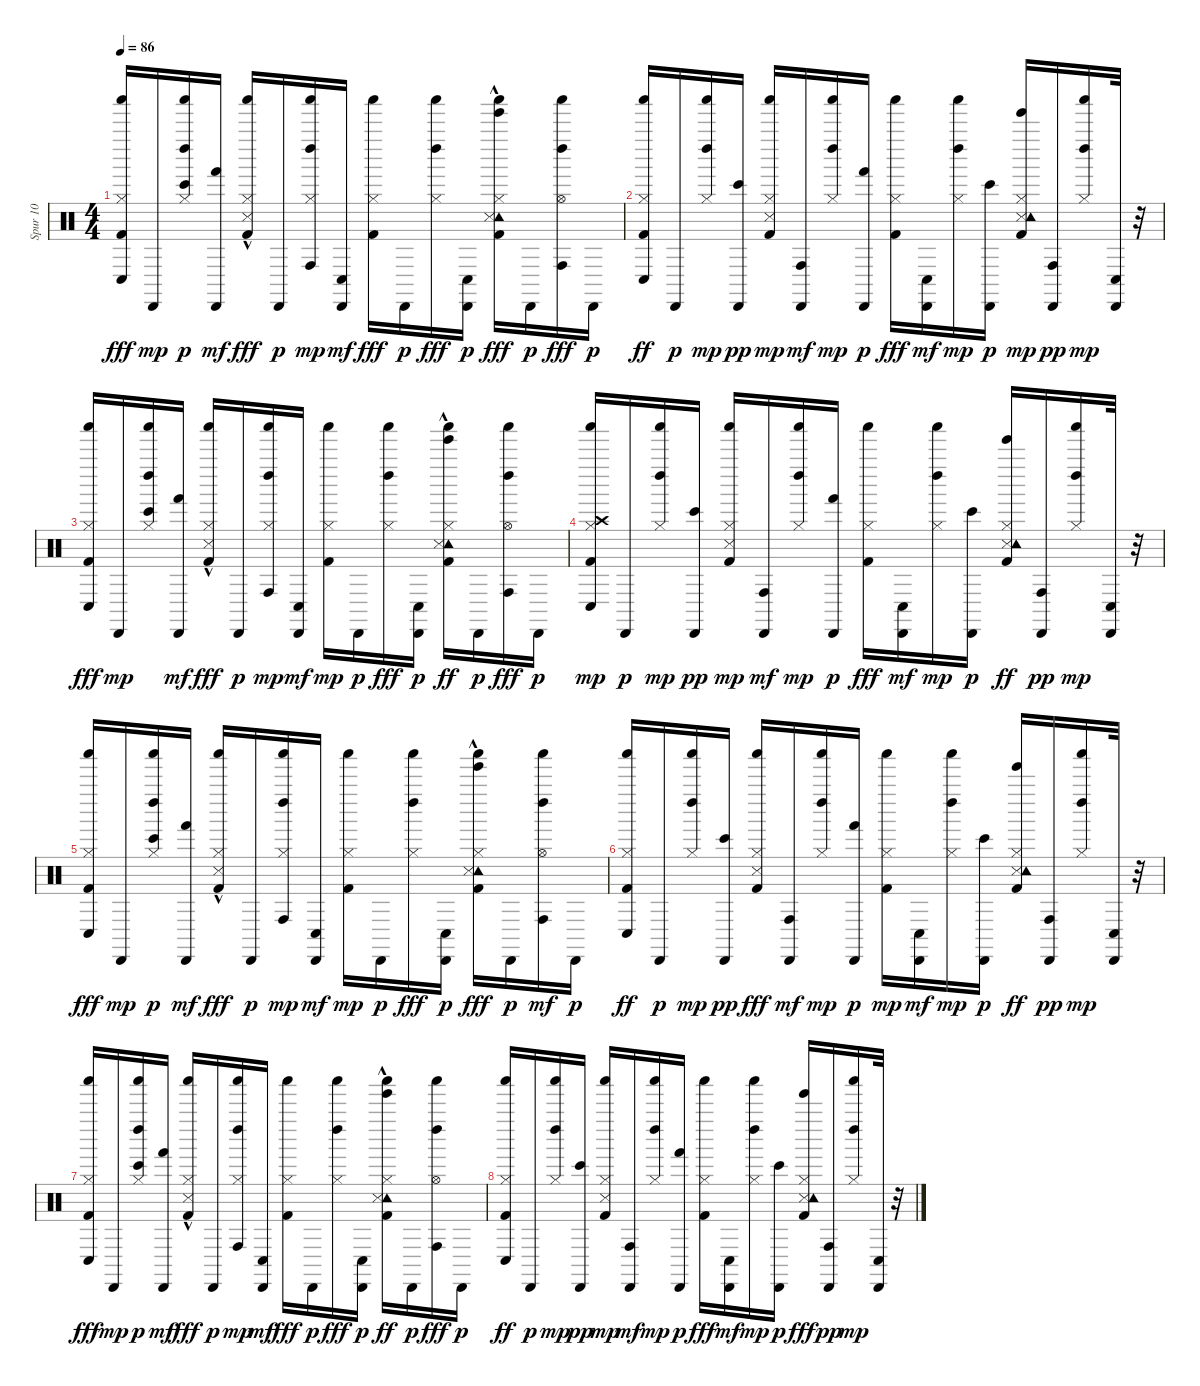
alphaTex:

\track ("Spur 10" "Spur 10") {instrument percussion}
\staff {score}
\articulation defaults
\ts (4 4)
\tempo 86
\clef neutral
\ks c
("Hi-Hat (closed)" "Kick (hit) 2" "Shaker (hit)" "Conga low (hit)").16{dy fff} "Cabasa (hit)".16{dy mp} ("Hi-Hat (closed)" "Shaker (hit)" "Bongo High (hit)" "Left Maraca (hit)").16{dy p} ("Cabasa (hit)" "Hand (hit)").16{dy mf} ("Hi-Hat (closed)" "Snare (side stick) 3"{hac} "Shaker (hit)" "Kick (hit) 2").16{dy fff} "Cabasa (hit)".16{dy p} ("Hi-Hat (closed)" "Conga high (hit)" "Shaker (hit)" "Left Maraca (hit)").16{dy mp} ("Cabasa (hit)" "Conga low (hit)").16{dy mf} ("Hi-Hat (closed)" "Shaker (hit)" "Kick (hit) 2").16{dy fff} "Cabasa (hit)".16{dy p} ("Hi-Hat (closed)" "Shaker (hit)" "Left Maraca (hit)").16{dy fff} ("Cabasa (hit)" "Conga low (hit)").16{dy p} ("Hi-Hat (closed)" "Tinkle Bell (hit)"{hac} "Tambourine (hit)"{hac} "Shaker (hit)" "Kick (hit) 2" "Snare (side stick) 3"{hac}).16{dy fff} "Cabasa (hit)".16{dy p} ("Hi-Hat (open)" "Shaker (hit)" "Conga high (hit)" "Left Maraca (hit)").16{dy fff} "Cabasa (hit)".16{dy p} |
("Hi-Hat (closed)" "Shaker (hit)" "Kick (hit) 2" "Conga low (hit)").16{dy ff} "Cabasa (hit)".16{dy p} ("Shaker (hit)" "Hi-Hat (closed)" "Left Maraca (hit)").16{dy mp} ("Bongo High (hit)" "Cabasa (hit)").16{dy pp} ("Shaker (hit)" "Kick (hit) 2" "Snare (side stick) 3" "Hi-Hat (closed)").16{dy mp} ("Cabasa (hit)" "Conga high (hit)").16{dy mf} ("Shaker (hit)" "Hi-Hat (closed)" "Left Maraca (hit)").16{dy mp} ("Hand (hit)" "Cabasa (hit)").16{dy p} ("Hi-Hat (closed)" "Shaker (hit)" "Kick (hit) 2").16{dy fff} ("Cabasa (hit)" "Conga low (hit)").16{dy mf} ("Shaker (hit)" "Hi-Hat (closed)" "Left Maraca (hit)").16{dy mp} ("Bongo High (hit)" "Cabasa (hit)").16{dy p} ("Snare (side stick) 3" "Kick (hit) 2" "Tambourine (hit)" "Tinkle Bell (hit)" "Hi-Hat (closed)").16{dy mp} ("Conga high (hit)" "Cabasa (hit)").16{dy pp} ("Shaker (hit)" "Hi-Hat (closed)" "Left Maraca (hit)").16{dy mp} ("Conga low (hit)" "Cabasa (hit)").32 r.32 |
("Hi-Hat (closed)" "Kick (hit) 2" "Shaker (hit)" "Conga low (hit)").16{dy fff} "Cabasa (hit)".16{dy mp} ("Shaker (hit)" "Bongo High (hit)" "Hi-Hat (closed)" "Left Maraca (hit)").16 ("Cabasa (hit)" "Hand (hit)").16{dy mf} ("Hi-Hat (closed)" "Snare (side stick) 3"{hac} "Shaker (hit)" "Kick (hit) 2").16{dy fff} "Cabasa (hit)".16{dy p} ("Conga high (hit)" "Shaker (hit)" "Hi-Hat (closed)" "Left Maraca (hit)").16{dy mp} ("Cabasa (hit)" "Conga low (hit)").16{dy mf} ("Shaker (hit)" "Kick (hit) 2" "Hi-Hat (closed)").16{dy mp} "Cabasa (hit)".16{dy p} ("Shaker (hit)" "Hi-Hat (closed)" "Left Maraca (hit)").16{dy fff} ("Cabasa (hit)" "Conga low (hit)").16{dy p} ("Hi-Hat (closed)" "Tambourine (hit)"{hac} "Shaker (hit)" "Kick (hit) 2" "Snare (side stick) 3"{hac} "Tinkle Bell (hit)").16{dy ff} "Cabasa (hit)".16{dy p} ("Hi-Hat (open)" "Shaker (hit)" "Conga high (hit)" "Left Maraca (hit)").16{dy fff} "Cabasa (hit)".16{dy p} |
("Shaker (hit)" "Kick (hit) 2" "Conga low (hit)" "Crash high (hit)" "Hi-Hat (closed)").16{dy mp} "Cabasa (hit)".16{dy p} ("Hi-Hat (closed)" "Shaker (hit)" "Left Maraca (hit)").16{dy mp} ("Bongo High (hit)" "Cabasa (hit)").16{dy pp} ("Shaker (hit)" "Kick (hit) 2" "Snare (side stick) 3" "Hi-Hat (closed)").16{dy mp} ("Cabasa (hit)" "Conga high (hit)").16{dy mf} ("Shaker (hit)" "Hi-Hat (closed)" "Left Maraca (hit)").16{dy mp} ("Hand (hit)" "Cabasa (hit)").16{dy p} ("Hi-Hat (closed)" "Shaker (hit)" "Kick (hit) 2").16{dy fff} ("Cabasa (hit)" "Conga low (hit)").16{dy mf} ("Shaker (hit)" "Hi-Hat (closed)" "Left Maraca (hit)").16{dy mp} ("Bongo High (hit)" "Cabasa (hit)").16{dy p} ("Hi-Hat (closed)" "Snare (side stick) 3" "Kick (hit) 2" "Tambourine (hit)" "Tinkle Bell (hit)").16{dy ff} ("Conga high (hit)" "Cabasa (hit)").16{dy pp} ("Shaker (hit)" "Hi-Hat (closed)" "Left Maraca (hit)").16{dy mp} ("Conga low (hit)" "Cabasa (hit)").32 r.32 |
("Hi-Hat (closed)" "Kick (hit) 2" "Shaker (hit)" "Conga low (hit)").16{dy fff} "Cabasa (hit)".16{dy mp} ("Hi-Hat (closed)" "Shaker (hit)" "Bongo High (hit)" "Left Maraca (hit)").16{dy p} ("Cabasa (hit)" "Hand (hit)").16{dy mf} ("Hi-Hat (closed)" "Snare (side stick) 3"{hac} "Shaker (hit)" "Kick (hit) 2").16{dy fff} "Cabasa (hit)".16{dy p} ("Conga high (hit)" "Shaker (hit)" "Hi-Hat (closed)" "Left Maraca (hit)").16{dy mp} ("Cabasa (hit)" "Conga low (hit)").16{dy mf} ("Shaker (hit)" "Kick (hit) 2" "Hi-Hat (closed)").16{dy mp} "Cabasa (hit)".16{dy p} ("Shaker (hit)" "Hi-Hat (closed)" "Left Maraca (hit)").16{dy fff} ("Cabasa (hit)" "Conga low (hit)").16{dy p} ("Tinkle Bell (hit)" "Tambourine (hit)"{hac} "Shaker (hit)" "Kick (hit) 2" "Snare (side stick) 3"{hac} "Hi-Hat (closed)").16{dy fff} "Cabasa (hit)".16{dy p} ("Shaker (hit)" "Conga high (hit)" "Hi-Hat (open)" "Left Maraca (hit)").16{dy mf} "Cabasa (hit)".16{dy p} |
("Hi-Hat (closed)" "Shaker (hit)" "Kick (hit) 2" "Conga low (hit)").16{dy ff} "Cabasa (hit)".16{dy p} ("Shaker (hit)" "Hi-Hat (closed)" "Left Maraca (hit)").16{dy mp} ("Bongo High (hit)" "Cabasa (hit)").16{dy pp} ("Hi-Hat (closed)" "Shaker (hit)" "Kick (hit) 2" "Snare (side stick) 3").16{dy fff} ("Cabasa (hit)" "Conga high (hit)").16{dy mf} ("Hi-Hat (closed)" "Shaker (hit)" "Left Maraca (hit)").16{dy mp} ("Hand (hit)" "Cabasa (hit)").16{dy p} ("Shaker (hit)" "Kick (hit) 2" "Hi-Hat (closed)").16{dy mp} ("Cabasa (hit)" "Conga low (hit)").16{dy mf} ("Shaker (hit)" "Hi-Hat (closed)" "Left Maraca (hit)").16{dy mp} ("Bongo High (hit)" "Cabasa (hit)").16{dy p} ("Hi-Hat (closed)" "Snare (side stick) 3" "Kick (hit) 2" "Tambourine (hit)" "Tinkle Bell (hit)").16{dy ff} ("Conga high (hit)" "Cabasa (hit)").16{dy pp} ("Shaker (hit)" "Hi-Hat (closed)" "Left Maraca (hit)").16{dy mp} ("Conga low (hit)" "Cabasa (hit)").32 r.32 |
("Hi-Hat (closed)" "Kick (hit) 2" "Shaker (hit)" "Conga low (hit)").16{dy fff} "Cabasa (hit)".16{dy mp} ("Hi-Hat (closed)" "Shaker (hit)" "Bongo High (hit)" "Left Maraca (hit)").16{dy p} ("Cabasa (hit)" "Hand (hit)").16{dy mf} ("Hi-Hat (closed)" "Snare (side stick) 3"{hac} "Shaker (hit)" "Kick (hit) 2").16{dy fff} "Cabasa (hit)".16{dy p} ("Conga high (hit)" "Shaker (hit)" "Hi-Hat (closed)" "Left Maraca (hit)").16{dy mp} ("Cabasa (hit)" "Conga low (hit)").16{dy mf} ("Hi-Hat (closed)" "Shaker (hit)" "Kick (hit) 2").16{dy fff} "Cabasa (hit)".16{dy p} ("Shaker (hit)" "Hi-Hat (closed)" "Left Maraca (hit)").16{dy fff} ("Cabasa (hit)" "Conga low (hit)").16{dy p} ("Hi-Hat (closed)" "Tambourine (hit)"{hac} "Shaker (hit)" "Kick (hit) 2" "Snare (side stick) 3"{hac} "Tinkle Bell (hit)"{hac}).16{dy ff} "Cabasa (hit)".16{dy p} ("Hi-Hat (open)" "Shaker (hit)" "Conga high (hit)" "Left Maraca (hit)").16{dy fff} "Cabasa (hit)".16{dy p} |
("Hi-Hat (closed)" "Shaker (hit)" "Kick (hit) 2" "Conga low (hit)").16{dy ff} "Cabasa (hit)".16{dy p} ("Shaker (hit)" "Hi-Hat (closed)" "Left Maraca (hit)").16{dy mp} ("Bongo High (hit)" "Cabasa (hit)").16{dy pp} ("Shaker (hit)" "Kick (hit) 2" "Snare (side stick) 3" "Hi-Hat (closed)").16{dy mp} ("Cabasa (hit)" "Conga high (hit)").16{dy mf} ("Shaker (hit)" "Hi-Hat (closed)" "Left Maraca (hit)").16{dy mp} ("Hand (hit)" "Cabasa (hit)").16{dy p} ("Hi-Hat (closed)" "Shaker (hit)" "Kick (hit) 2").16{dy fff} ("Cabasa (hit)" "Conga low (hit)").16{dy mf} ("Hi-Hat (closed)" "Shaker (hit)" "Left Maraca (hit)").16{dy mp} ("Bongo High (hit)" "Cabasa (hit)").16{dy p} ("Hi-Hat (closed)" "Tinkle Bell (hit)" "Kick (hit) 2" "Snare (side stick) 3" "Tambourine (hit)").16{dy fff} ("Conga high (hit)" "Cabasa (hit)").16{dy pp} ("Hi-Hat (closed)" "Shaker (hit)" "Left Maraca (hit)").16{dy mp} ("Conga low (hit)" "Cabasa (hit)").32 r.32
